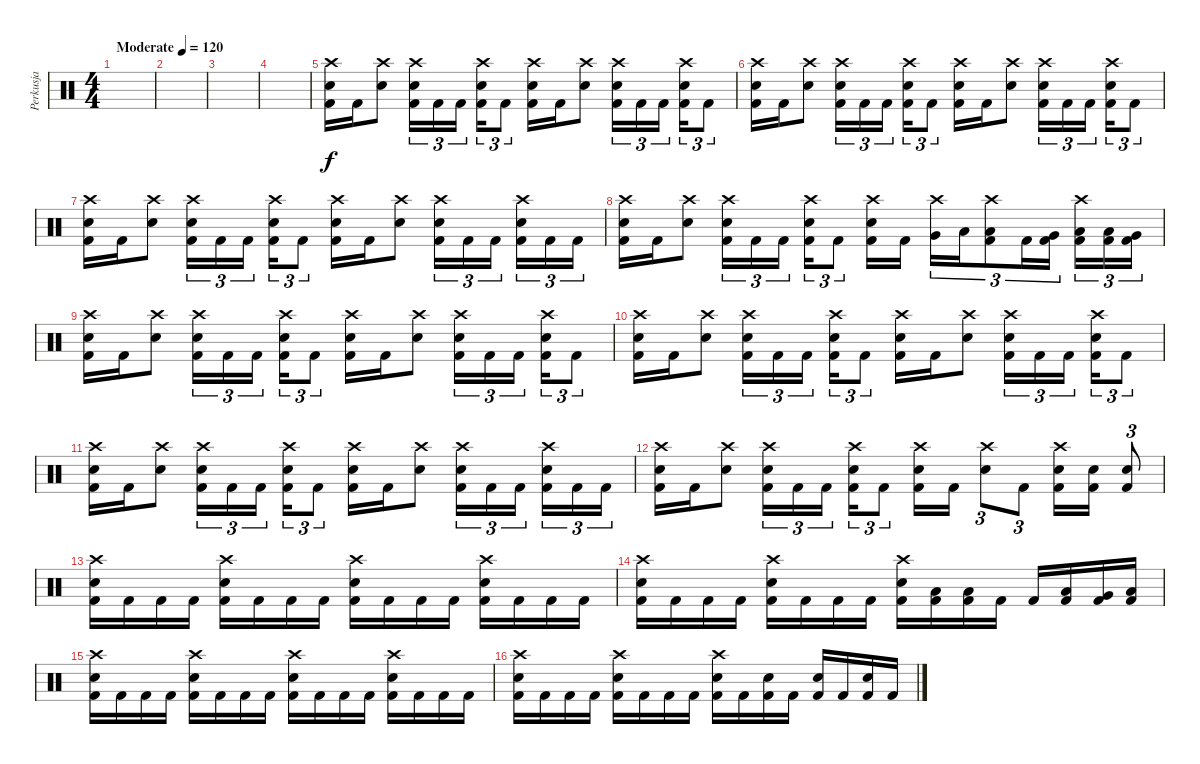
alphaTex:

\track ("Perkusja" "Perkusja") {instrument percussion}
\staff {score}
\articulation defaults
\ts (4 4)
\tempo (120 "Moderate")
\clef neutral
\ks c
|
|
|
|
("Crash high (hit)" "Electric Snare (hit)" "Kick (hit) 2").16 "Kick (hit) 2".16 ("Crash high (hit)" "Electric Snare (hit)").8 ("Crash high (hit)" "Electric Snare (hit)" "Kick (hit) 2").16{tu (3 2)} "Kick (hit) 2".16{tu (3 2)} "Kick (hit) 2".16{tu (3 2) beam splitsecondary} ("Crash high (hit)" "Electric Snare (hit)" "Kick (hit) 2").16{tu (3 2)} "Kick (hit) 2".8{tu (3 2)} ("Crash high (hit)" "Electric Snare (hit)" "Kick (hit) 2").16 "Kick (hit) 2".16 ("Crash high (hit)" "Electric Snare (hit)").8 ("Crash high (hit)" "Electric Snare (hit)" "Kick (hit) 2").16{tu (3 2)} "Kick (hit) 2".16{tu (3 2)} "Kick (hit) 2".16{tu (3 2) beam splitsecondary} ("Crash high (hit)" "Electric Snare (hit)" "Kick (hit) 2").16{tu (3 2)} "Kick (hit) 2".8{tu (3 2)} |
("Crash high (hit)" "Electric Snare (hit)" "Kick (hit) 2").16 "Kick (hit) 2".16 ("Crash high (hit)" "Electric Snare (hit)").8 ("Crash high (hit)" "Electric Snare (hit)" "Kick (hit) 2").16{tu (3 2)} "Kick (hit) 2".16{tu (3 2)} "Kick (hit) 2".16{tu (3 2) beam splitsecondary} ("Crash high (hit)" "Electric Snare (hit)" "Kick (hit) 2").16{tu (3 2)} "Kick (hit) 2".8{tu (3 2)} ("Crash high (hit)" "Electric Snare (hit)" "Kick (hit) 2").16 "Kick (hit) 2".16 ("Crash high (hit)" "Electric Snare (hit)").8 ("Crash high (hit)" "Electric Snare (hit)" "Kick (hit) 2").16{tu (3 2)} "Kick (hit) 2".16{tu (3 2)} "Kick (hit) 2".16{tu (3 2) beam splitsecondary} ("Crash high (hit)" "Electric Snare (hit)" "Kick (hit) 2").16{tu (3 2)} "Kick (hit) 2".8{tu (3 2)} |
("Crash high (hit)" "Electric Snare (hit)" "Kick (hit) 2").16 "Kick (hit) 2".16 ("Crash high (hit)" "Electric Snare (hit)").8 ("Crash high (hit)" "Electric Snare (hit)" "Kick (hit) 2").16{tu (3 2)} "Kick (hit) 2".16{tu (3 2)} "Kick (hit) 2".16{tu (3 2) beam splitsecondary} ("Crash high (hit)" "Electric Snare (hit)" "Kick (hit) 2").16{tu (3 2)} "Kick (hit) 2".8{tu (3 2)} ("Crash high (hit)" "Electric Snare (hit)" "Kick (hit) 2").16 "Kick (hit) 2".16 ("Crash high (hit)" "Electric Snare (hit)").8 ("Crash high (hit)" "Electric Snare (hit)" "Kick (hit) 2").16{tu (3 2)} "Kick (hit) 2".16{tu (3 2)} "Kick (hit) 2".16{tu (3 2) beam splitsecondary} ("Crash high (hit)" "Electric Snare (hit)" "Kick (hit) 2").16{tu (3 2)} "Kick (hit) 2".16{tu (3 2)} "Kick (hit) 2".16{tu (3 2)} |
("Crash high (hit)" "Electric Snare (hit)" "Kick (hit) 2").16 "Kick (hit) 2".16 ("Crash high (hit)" "Electric Snare (hit)").8 ("Crash high (hit)" "Electric Snare (hit)" "Kick (hit) 2").16{tu (3 2)} "Kick (hit) 2".16{tu (3 2)} "Kick (hit) 2".16{tu (3 2) beam splitsecondary} ("Crash high (hit)" "Electric Snare (hit)" "Kick (hit) 2").16{tu (3 2)} "Kick (hit) 2".8{tu (3 2)} ("Crash high (hit)" "Electric Snare (hit)" "Kick (hit) 2").16 "Kick (hit) 2".16{beam splitsecondary} ("Crash high (hit)" "Very Low Tom (hit)").16{tu (3 2)} "Low Floor Tom (hit)".16{tu (3 2)} ("Crash high (hit)" "Low Floor Tom (hit)" "Kick (hit) 2").8{tu (3 2)} "Kick (hit) 2".16{tu (3 2)} ("Very Low Tom (hit)" "Kick (hit) 2").16{tu (3 2) beam splitsecondary} ("Crash high (hit)" "Low Tom (hit)" "Kick (hit) 2").16{tu (3 2)} ("Low Tom (hit)" "Kick (hit) 2").16{tu (3 2)} ("Very Low Tom (hit)" "Kick (hit) 2").16{tu (3 2)} |
("Crash high (hit)" "Electric Snare (hit)" "Kick (hit) 2").16 "Kick (hit) 2".16 ("Crash high (hit)" "Electric Snare (hit)").8 ("Crash high (hit)" "Electric Snare (hit)" "Kick (hit) 2").16{tu (3 2)} "Kick (hit) 2".16{tu (3 2)} "Kick (hit) 2".16{tu (3 2) beam splitsecondary} ("Crash high (hit)" "Electric Snare (hit)" "Kick (hit) 2").16{tu (3 2)} "Kick (hit) 2".8{tu (3 2)} ("Crash high (hit)" "Electric Snare (hit)" "Kick (hit) 2").16 "Kick (hit) 2".16 ("Crash high (hit)" "Electric Snare (hit)").8 ("Crash high (hit)" "Electric Snare (hit)" "Kick (hit) 2").16{tu (3 2)} "Kick (hit) 2".16{tu (3 2)} "Kick (hit) 2".16{tu (3 2) beam splitsecondary} ("Crash high (hit)" "Electric Snare (hit)" "Kick (hit) 2").16{tu (3 2)} "Kick (hit) 2".8{tu (3 2)} |
("Crash high (hit)" "Electric Snare (hit)" "Kick (hit) 2").16 "Kick (hit) 2".16 ("Crash high (hit)" "Electric Snare (hit)").8 ("Crash high (hit)" "Electric Snare (hit)" "Kick (hit) 2").16{tu (3 2)} "Kick (hit) 2".16{tu (3 2)} "Kick (hit) 2".16{tu (3 2) beam splitsecondary} ("Crash high (hit)" "Electric Snare (hit)" "Kick (hit) 2").16{tu (3 2)} "Kick (hit) 2".8{tu (3 2)} ("Crash high (hit)" "Electric Snare (hit)" "Kick (hit) 2").16 "Kick (hit) 2".16 ("Crash high (hit)" "Electric Snare (hit)").8 ("Crash high (hit)" "Electric Snare (hit)" "Kick (hit) 2").16{tu (3 2)} "Kick (hit) 2".16{tu (3 2)} "Kick (hit) 2".16{tu (3 2) beam splitsecondary} ("Crash high (hit)" "Electric Snare (hit)" "Kick (hit) 2").16{tu (3 2)} "Kick (hit) 2".8{tu (3 2)} |
("Crash high (hit)" "Electric Snare (hit)" "Kick (hit) 2").16 "Kick (hit) 2".16 ("Crash high (hit)" "Electric Snare (hit)").8 ("Crash high (hit)" "Electric Snare (hit)" "Kick (hit) 2").16{tu (3 2)} "Kick (hit) 2".16{tu (3 2)} "Kick (hit) 2".16{tu (3 2) beam splitsecondary} ("Crash high (hit)" "Electric Snare (hit)" "Kick (hit) 2").16{tu (3 2)} "Kick (hit) 2".8{tu (3 2)} ("Crash high (hit)" "Electric Snare (hit)" "Kick (hit) 2").16 "Kick (hit) 2".16 ("Crash high (hit)" "Electric Snare (hit)").8 ("Crash high (hit)" "Electric Snare (hit)" "Kick (hit) 2").16{tu (3 2)} "Kick (hit) 2".16{tu (3 2)} "Kick (hit) 2".16{tu (3 2) beam splitsecondary} ("Crash high (hit)" "Electric Snare (hit)" "Kick (hit) 2").16{tu (3 2)} "Kick (hit) 2".16{tu (3 2)} "Kick (hit) 2".16{tu (3 2)} |
("Crash high (hit)" "Electric Snare (hit)" "Kick (hit) 2").16 "Kick (hit) 2".16 ("Crash high (hit)" "Electric Snare (hit)").8 ("Crash high (hit)" "Electric Snare (hit)" "Kick (hit) 2").16{tu (3 2)} "Kick (hit) 2".16{tu (3 2)} "Kick (hit) 2".16{tu (3 2) beam splitsecondary} ("Crash high (hit)" "Electric Snare (hit)" "Kick (hit) 2").16{tu (3 2)} "Kick (hit) 2".8{tu (3 2)} ("Crash high (hit)" "Electric Snare (hit)" "Kick (hit) 2").16 "Kick (hit) 2".16 ("Crash high (hit)" "Electric Snare (hit)").8{tu (3 2)} "Kick (hit) 2".8{tu (3 2)} ("Crash high (hit)" "Electric Snare (hit)" "Kick (hit) 2").16 ("Electric Snare (hit)" "Kick (hit) 2").16 ("Electric Snare (hit)" "Kick (hit) 2").8{tu (3 2)} |
("Crash high (hit)" "Electric Snare (hit)" "Kick (hit) 2").16 "Kick (hit) 2".16 "Kick (hit) 2".16 "Kick (hit) 2".16 ("Crash high (hit)" "Electric Snare (hit)" "Kick (hit) 2").16 "Kick (hit) 2".16 "Kick (hit) 2".16 "Kick (hit) 2".16 ("Crash high (hit)" "Electric Snare (hit)" "Kick (hit) 2").16 "Kick (hit) 2".16 "Kick (hit) 2".16 "Kick (hit) 2".16 ("Crash high (hit)" "Electric Snare (hit)" "Kick (hit) 2").16 "Kick (hit) 2".16 "Kick (hit) 2".16 "Kick (hit) 2".16 |
("Crash high (hit)" "Electric Snare (hit)" "Kick (hit) 2").16 "Kick (hit) 2".16 "Kick (hit) 2".16 "Kick (hit) 2".16 ("Crash high (hit)" "Electric Snare (hit)" "Kick (hit) 2").16 "Kick (hit) 2".16 "Kick (hit) 2".16 "Kick (hit) 2".16 ("Crash high (hit)" "Electric Snare (hit)" "Kick (hit) 2").16 ("Low Floor Tom (hit)" "Kick (hit) 2").16 ("Low Floor Tom (hit)" "Kick (hit) 2").16 "Kick (hit) 2".16 "Kick (hit) 2".16 ("Low Floor Tom (hit)" "Kick (hit) 2").16 ("Very Low Tom (hit)" "Kick (hit) 2").16 ("Low Floor Tom (hit)" "Kick (hit) 2").16 |
("Crash high (hit)" "Electric Snare (hit)" "Kick (hit) 2").16 "Kick (hit) 2".16 "Kick (hit) 2".16 "Kick (hit) 2".16 ("Crash high (hit)" "Electric Snare (hit)" "Kick (hit) 2").16 "Kick (hit) 2".16 "Kick (hit) 2".16 "Kick (hit) 2".16 ("Crash high (hit)" "Electric Snare (hit)" "Kick (hit) 2").16 "Kick (hit) 2".16 "Kick (hit) 2".16 "Kick (hit) 2".16 ("Crash high (hit)" "Electric Snare (hit)" "Kick (hit) 2").16 "Kick (hit) 2".16 "Kick (hit) 2".16 "Kick (hit) 2".16 |
("Crash high (hit)" "Electric Snare (hit)" "Kick (hit) 2").16 "Kick (hit) 2".16 "Kick (hit) 2".16 "Kick (hit) 2".16 ("Crash high (hit)" "Electric Snare (hit)" "Kick (hit) 2").16 "Kick (hit) 2".16 "Kick (hit) 2".16 "Kick (hit) 2".16 ("Crash high (hit)" "Electric Snare (hit)" "Kick (hit) 2").16 "Kick (hit) 2".16 ("Electric Snare (hit)" "Kick (hit) 2").16 "Kick (hit) 2".16 ("Electric Snare (hit)" "Kick (hit) 2").16 "Kick (hit) 2".16 ("Electric Snare (hit)" "Kick (hit) 2").16 "Kick (hit) 2".16
